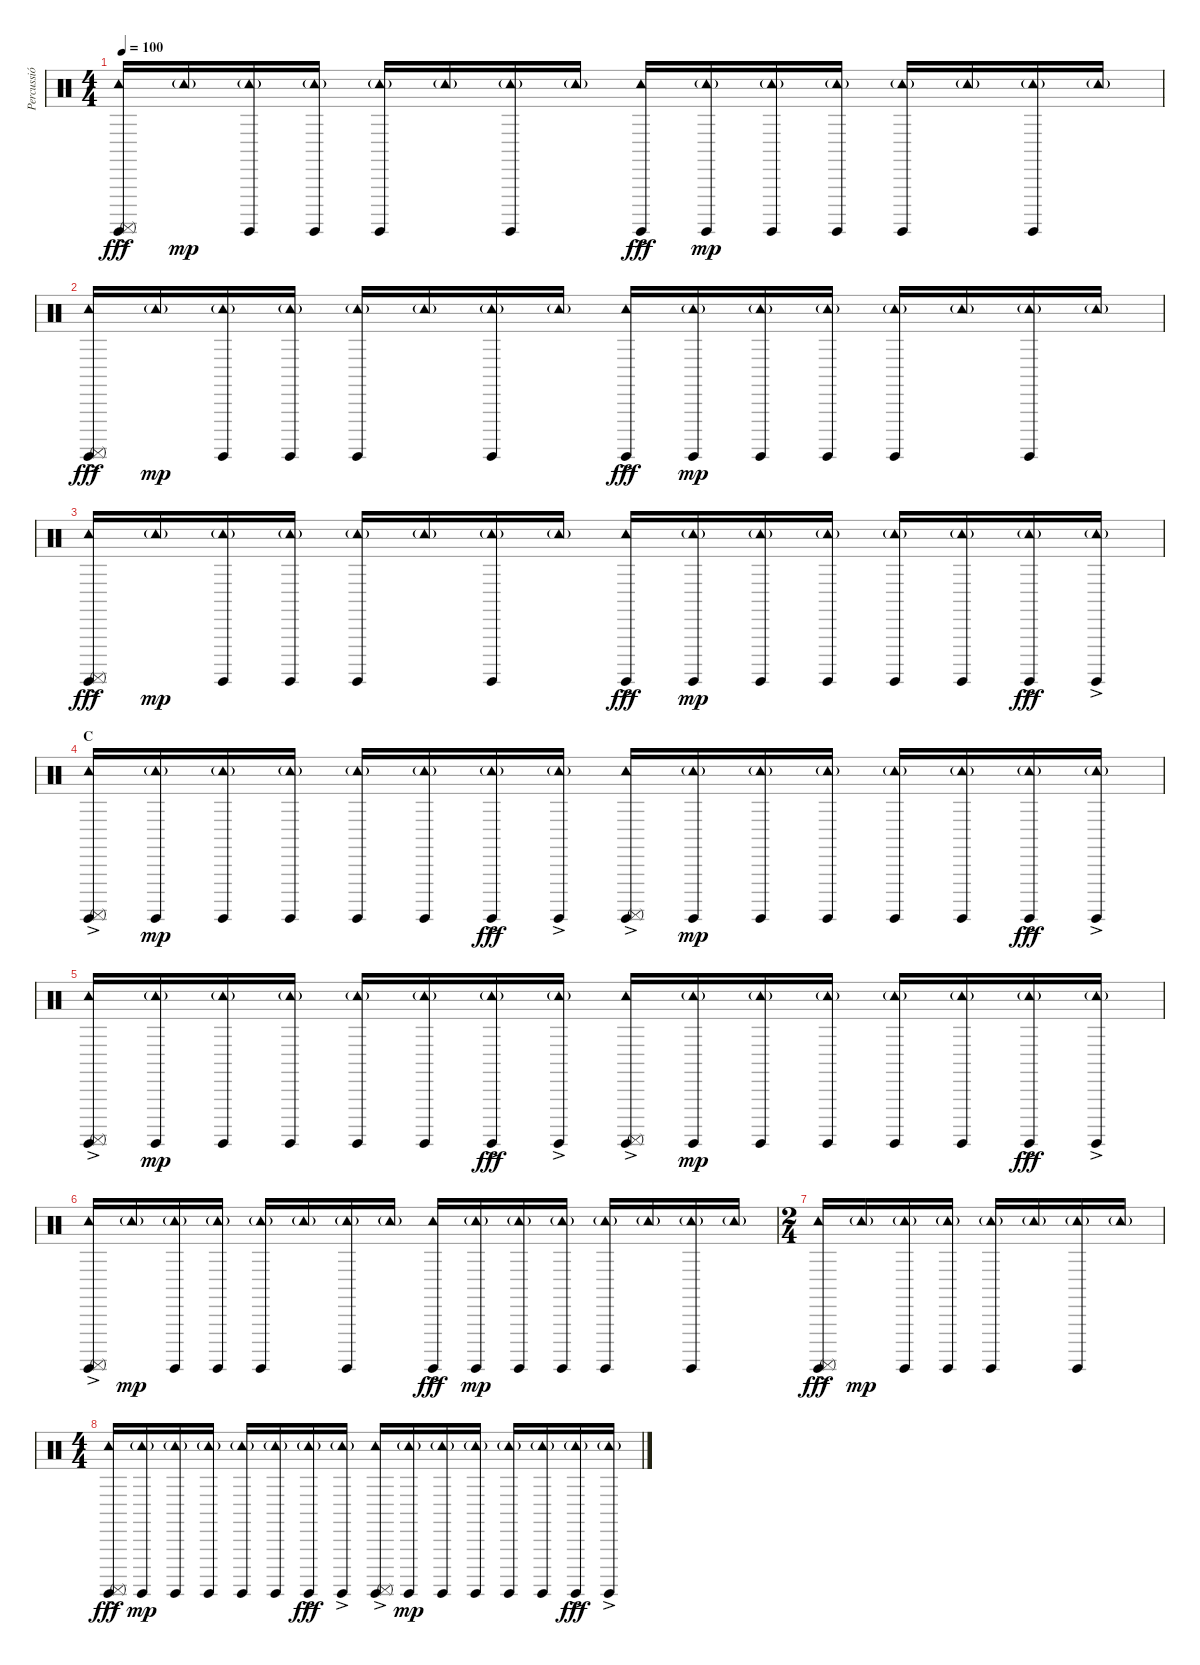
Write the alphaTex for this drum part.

\track ("Percussió" "Percussió") {instrument percussion}
\staff {score}
\articulation defaults
\ts (4 4)
\tempo 100
\clef neutral
\ks c
("Tambourine (hit)"{ac} "Surdo (hit)" "Surdo (mute)"{ac}).16{dy fff} "Tambourine (hit)"{g}.16{dy mp} ("Tambourine (hit)"{g} "Surdo (hit)").16 ("Tambourine (hit)"{g} "Surdo (hit)").16 ("Tambourine (hit)"{g} "Surdo (hit)").16 "Tambourine (hit)"{g}.16 ("Tambourine (hit)"{g} "Surdo (hit)").16 "Tambourine (hit)"{g}.16 ("Tambourine (hit)"{ac} "Surdo (hit)"{ac}).16{dy fff} ("Tambourine (hit)"{g} "Surdo (hit)").16{dy mp} ("Tambourine (hit)"{g} "Surdo (hit)").16 ("Tambourine (hit)"{g} "Surdo (hit)").16 ("Tambourine (hit)"{g} "Surdo (hit)").16 "Tambourine (hit)"{g}.16 ("Tambourine (hit)"{g} "Surdo (hit)").16 "Tambourine (hit)"{g}.16 |
("Tambourine (hit)"{ac} "Surdo (hit)" "Surdo (mute)"{ac}).16{dy fff} "Tambourine (hit)"{g}.16{dy mp} ("Tambourine (hit)"{g} "Surdo (hit)").16 ("Tambourine (hit)"{g} "Surdo (hit)").16 ("Tambourine (hit)"{g} "Surdo (hit)").16 "Tambourine (hit)"{g}.16 ("Tambourine (hit)"{g} "Surdo (hit)").16 "Tambourine (hit)"{g}.16 ("Tambourine (hit)"{ac} "Surdo (hit)"{ac}).16{dy fff} ("Tambourine (hit)"{g} "Surdo (hit)").16{dy mp} ("Tambourine (hit)"{g} "Surdo (hit)").16 ("Tambourine (hit)"{g} "Surdo (hit)").16 ("Tambourine (hit)"{g} "Surdo (hit)").16 "Tambourine (hit)"{g}.16 ("Tambourine (hit)"{g} "Surdo (hit)").16 "Tambourine (hit)"{g}.16 |
("Tambourine (hit)"{ac} "Surdo (hit)" "Surdo (mute)"{ac}).16{dy fff} "Tambourine (hit)"{g}.16{dy mp} ("Tambourine (hit)"{g} "Surdo (hit)").16 ("Tambourine (hit)"{g} "Surdo (hit)").16 ("Tambourine (hit)"{g} "Surdo (hit)").16 "Tambourine (hit)"{g}.16 ("Tambourine (hit)"{g} "Surdo (hit)").16 "Tambourine (hit)"{g}.16 ("Tambourine (hit)"{ac} "Surdo (hit)"{ac}).16{dy fff} ("Tambourine (hit)"{g} "Surdo (hit)").16{dy mp} ("Tambourine (hit)"{g} "Surdo (hit)").16 ("Tambourine (hit)"{g} "Surdo (hit)").16 ("Tambourine (hit)"{g} "Surdo (hit)").16 ("Tambourine (hit)"{g} "Surdo (hit)").16 ("Tambourine (hit)"{g} "Surdo (hit)"{ac}).16{dy fff} ("Tambourine (hit)"{g} "Surdo (hit)"{ac}).16 |
\section ("" "C")
("Tambourine (hit)"{ac} "Surdo (hit)" "Surdo (mute)"{ac}).16 ("Tambourine (hit)"{g} "Surdo (hit)").16{dy mp} ("Tambourine (hit)"{g} "Surdo (hit)").16 ("Tambourine (hit)"{g} "Surdo (hit)").16 ("Tambourine (hit)"{g} "Surdo (hit)").16 ("Tambourine (hit)"{g} "Surdo (hit)").16 ("Tambourine (hit)"{g} "Surdo (hit)"{ac}).16{dy fff} ("Tambourine (hit)"{g} "Surdo (hit)"{ac}).16 ("Tambourine (hit)"{ac} "Surdo (hit)"{ac} "Surdo (mute)"{ac}).16 ("Tambourine (hit)"{g} "Surdo (hit)").16{dy mp} ("Tambourine (hit)"{g} "Surdo (hit)").16 ("Tambourine (hit)"{g} "Surdo (hit)").16 ("Tambourine (hit)"{g} "Surdo (hit)").16 ("Tambourine (hit)"{g} "Surdo (hit)").16 ("Tambourine (hit)"{g} "Surdo (hit)"{ac}).16{dy fff} ("Tambourine (hit)"{g} "Surdo (hit)"{ac}).16 |
("Tambourine (hit)"{ac} "Surdo (hit)" "Surdo (mute)"{ac}).16 ("Tambourine (hit)"{g} "Surdo (hit)").16{dy mp} ("Tambourine (hit)"{g} "Surdo (hit)").16 ("Tambourine (hit)"{g} "Surdo (hit)").16 ("Tambourine (hit)"{g} "Surdo (hit)").16 ("Tambourine (hit)"{g} "Surdo (hit)").16 ("Tambourine (hit)"{g} "Surdo (hit)"{ac}).16{dy fff} ("Tambourine (hit)"{g} "Surdo (hit)"{ac}).16 ("Tambourine (hit)"{ac} "Surdo (hit)"{ac} "Surdo (mute)"{ac}).16 ("Tambourine (hit)"{g} "Surdo (hit)").16{dy mp} ("Tambourine (hit)"{g} "Surdo (hit)").16 ("Tambourine (hit)"{g} "Surdo (hit)").16 ("Tambourine (hit)"{g} "Surdo (hit)").16 ("Tambourine (hit)"{g} "Surdo (hit)").16 ("Tambourine (hit)"{g} "Surdo (hit)"{ac}).16{dy fff} ("Tambourine (hit)"{g} "Surdo (hit)"{ac}).16 |
("Tambourine (hit)"{ac} "Surdo (hit)" "Surdo (mute)"{ac}).16 "Tambourine (hit)"{g}.16{dy mp} ("Tambourine (hit)"{g} "Surdo (hit)").16 ("Tambourine (hit)"{g} "Surdo (hit)").16 ("Tambourine (hit)"{g} "Surdo (hit)").16 "Tambourine (hit)"{g}.16 ("Tambourine (hit)"{g} "Surdo (hit)").16 "Tambourine (hit)"{g}.16 ("Tambourine (hit)"{ac} "Surdo (hit)"{ac}).16{dy fff} ("Tambourine (hit)"{g} "Surdo (hit)").16{dy mp} ("Tambourine (hit)"{g} "Surdo (hit)").16 ("Tambourine (hit)"{g} "Surdo (hit)").16 ("Tambourine (hit)"{g} "Surdo (hit)").16 "Tambourine (hit)"{g}.16 ("Tambourine (hit)"{g} "Surdo (hit)").16 "Tambourine (hit)"{g}.16 |
\ts (2 4)
("Tambourine (hit)"{ac} "Surdo (hit)" "Surdo (mute)"{ac}).16{dy fff} "Tambourine (hit)"{g}.16{dy mp} ("Tambourine (hit)"{g} "Surdo (hit)").16 ("Tambourine (hit)"{g} "Surdo (hit)").16 ("Tambourine (hit)"{g} "Surdo (hit)").16 "Tambourine (hit)"{g}.16 ("Tambourine (hit)"{g} "Surdo (hit)").16 "Tambourine (hit)"{g}.16 |
\ts (4 4)
("Tambourine (hit)"{ac} "Surdo (hit)" "Surdo (mute)"{ac}).16{dy fff} ("Tambourine (hit)"{g} "Surdo (hit)").16{dy mp} ("Tambourine (hit)"{g} "Surdo (hit)").16 ("Tambourine (hit)"{g} "Surdo (hit)").16 ("Tambourine (hit)"{g} "Surdo (hit)").16 ("Tambourine (hit)"{g} "Surdo (hit)").16 ("Tambourine (hit)"{g} "Surdo (hit)"{ac}).16{dy fff} ("Tambourine (hit)"{g} "Surdo (hit)"{ac}).16 ("Tambourine (hit)"{ac} "Surdo (hit)"{ac} "Surdo (mute)"{ac}).16 ("Tambourine (hit)"{g} "Surdo (hit)").16{dy mp} ("Tambourine (hit)"{g} "Surdo (hit)").16 ("Tambourine (hit)"{g} "Surdo (hit)").16 ("Tambourine (hit)"{g} "Surdo (hit)").16 ("Tambourine (hit)"{g} "Surdo (hit)").16 ("Tambourine (hit)"{g} "Surdo (hit)"{ac}).16{dy fff} ("Tambourine (hit)"{g} "Surdo (hit)"{ac}).16
